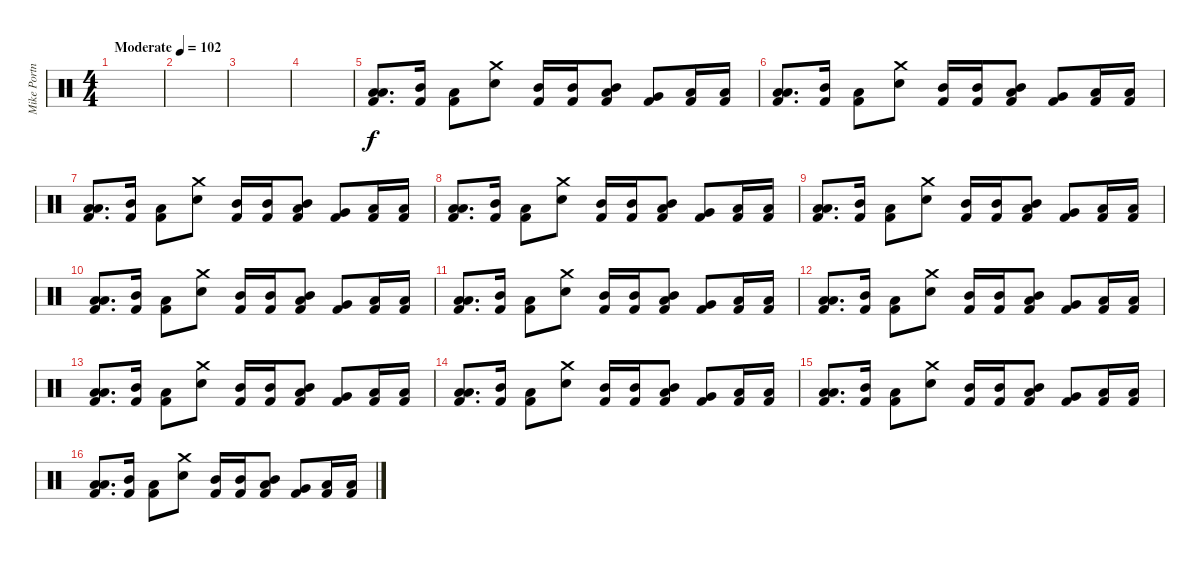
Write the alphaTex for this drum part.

\track ("Mike Portnoy Drum " "Mike Portn") {instrument percussion}
\staff {score}
\articulation defaults
\ts (4 4)
\tempo (102 "Moderate")
\clef neutral
\ks c
|
|
|
|
("Low Tom (hit)" "Low Floor Tom (hit)" "Kick (hit) 2").8{d volume 15} ("Mid Tom (hit)" "Kick (hit) 2").16 ("Low Floor Tom (hit)" "Kick (hit) 2").8 ("Crash medium (hit)" "Electric Snare (hit)").8 ("Mid Tom (hit)" "Kick (hit) 2").16 ("Mid Tom (hit)" "Kick (hit) 2").16 ("Mid Tom (hit)" "Low Tom (hit)" "Kick (hit) 2").8 ("Very Low Tom (hit)" "Kick (hit) 2").8 ("Low Floor Tom (hit)" "Kick (hit) 2").16 ("Low Floor Tom (hit)" "Kick (hit) 2").16 |
("Low Tom (hit)" "Low Floor Tom (hit)" "Kick (hit) 2").8{d} ("Mid Tom (hit)" "Kick (hit) 2").16 ("Low Floor Tom (hit)" "Kick (hit) 2").8 ("Crash medium (hit)" "Electric Snare (hit)").8 ("Mid Tom (hit)" "Kick (hit) 2").16 ("Mid Tom (hit)" "Kick (hit) 2").16 ("Mid Tom (hit)" "Low Tom (hit)" "Kick (hit) 2").8 ("Very Low Tom (hit)" "Kick (hit) 2").8 ("Low Floor Tom (hit)" "Kick (hit) 2").16 ("Low Floor Tom (hit)" "Kick (hit) 2").16 |
("Low Tom (hit)" "Low Floor Tom (hit)" "Kick (hit) 2").8{d} ("Mid Tom (hit)" "Kick (hit) 2").16 ("Low Floor Tom (hit)" "Kick (hit) 2").8 ("Crash medium (hit)" "Electric Snare (hit)").8 ("Mid Tom (hit)" "Kick (hit) 2").16 ("Mid Tom (hit)" "Kick (hit) 2").16 ("Mid Tom (hit)" "Low Tom (hit)" "Kick (hit) 2").8 ("Very Low Tom (hit)" "Kick (hit) 2").8 ("Low Floor Tom (hit)" "Kick (hit) 2").16 ("Low Floor Tom (hit)" "Kick (hit) 2").16 |
("Low Tom (hit)" "Low Floor Tom (hit)" "Kick (hit) 2").8{d} ("Mid Tom (hit)" "Kick (hit) 2").16 ("Low Floor Tom (hit)" "Kick (hit) 2").8 ("Crash medium (hit)" "Electric Snare (hit)").8 ("Mid Tom (hit)" "Kick (hit) 2").16 ("Mid Tom (hit)" "Kick (hit) 2").16 ("Mid Tom (hit)" "Low Tom (hit)" "Kick (hit) 2").8 ("Very Low Tom (hit)" "Kick (hit) 2").8 ("Low Floor Tom (hit)" "Kick (hit) 2").16 ("Low Floor Tom (hit)" "Kick (hit) 2").16 |
("Low Tom (hit)" "Low Floor Tom (hit)" "Kick (hit) 2").8{d} ("Mid Tom (hit)" "Kick (hit) 2").16 ("Low Floor Tom (hit)" "Kick (hit) 2").8 ("Crash medium (hit)" "Electric Snare (hit)").8 ("Mid Tom (hit)" "Kick (hit) 2").16 ("Mid Tom (hit)" "Kick (hit) 2").16 ("Mid Tom (hit)" "Low Tom (hit)" "Kick (hit) 2").8 ("Very Low Tom (hit)" "Kick (hit) 2").8 ("Low Floor Tom (hit)" "Kick (hit) 2").16 ("Low Floor Tom (hit)" "Kick (hit) 2").16 |
("Low Tom (hit)" "Low Floor Tom (hit)" "Kick (hit) 2").8{d} ("Mid Tom (hit)" "Kick (hit) 2").16 ("Low Floor Tom (hit)" "Kick (hit) 2").8 ("Crash medium (hit)" "Electric Snare (hit)").8 ("Mid Tom (hit)" "Kick (hit) 2").16 ("Mid Tom (hit)" "Kick (hit) 2").16 ("Mid Tom (hit)" "Low Tom (hit)" "Kick (hit) 2").8 ("Very Low Tom (hit)" "Kick (hit) 2").8 ("Low Floor Tom (hit)" "Kick (hit) 2").16 ("Low Floor Tom (hit)" "Kick (hit) 2").16 |
("Low Tom (hit)" "Low Floor Tom (hit)" "Kick (hit) 2").8{d} ("Mid Tom (hit)" "Kick (hit) 2").16 ("Low Floor Tom (hit)" "Kick (hit) 2").8 ("Crash medium (hit)" "Electric Snare (hit)").8 ("Mid Tom (hit)" "Kick (hit) 2").16 ("Mid Tom (hit)" "Kick (hit) 2").16 ("Mid Tom (hit)" "Low Tom (hit)" "Kick (hit) 2").8 ("Very Low Tom (hit)" "Kick (hit) 2").8 ("Low Floor Tom (hit)" "Kick (hit) 2").16 ("Low Floor Tom (hit)" "Kick (hit) 2").16 |
("Low Tom (hit)" "Low Floor Tom (hit)" "Kick (hit) 2").8{d} ("Mid Tom (hit)" "Kick (hit) 2").16 ("Low Floor Tom (hit)" "Kick (hit) 2").8 ("Crash medium (hit)" "Electric Snare (hit)").8 ("Mid Tom (hit)" "Kick (hit) 2").16 ("Mid Tom (hit)" "Kick (hit) 2").16 ("Mid Tom (hit)" "Low Tom (hit)" "Kick (hit) 2").8 ("Very Low Tom (hit)" "Kick (hit) 2").8 ("Low Floor Tom (hit)" "Kick (hit) 2").16 ("Low Floor Tom (hit)" "Kick (hit) 2").16 |
("Low Tom (hit)" "Low Floor Tom (hit)" "Kick (hit) 2").8{d} ("Mid Tom (hit)" "Kick (hit) 2").16 ("Low Floor Tom (hit)" "Kick (hit) 2").8 ("Crash medium (hit)" "Electric Snare (hit)").8 ("Mid Tom (hit)" "Kick (hit) 2").16 ("Mid Tom (hit)" "Kick (hit) 2").16 ("Mid Tom (hit)" "Low Tom (hit)" "Kick (hit) 2").8 ("Very Low Tom (hit)" "Kick (hit) 2").8 ("Low Floor Tom (hit)" "Kick (hit) 2").16 ("Low Floor Tom (hit)" "Kick (hit) 2").16 |
("Low Tom (hit)" "Low Floor Tom (hit)" "Kick (hit) 2").8{d} ("Mid Tom (hit)" "Kick (hit) 2").16 ("Low Floor Tom (hit)" "Kick (hit) 2").8 ("Crash medium (hit)" "Electric Snare (hit)").8 ("Mid Tom (hit)" "Kick (hit) 2").16 ("Mid Tom (hit)" "Kick (hit) 2").16 ("Mid Tom (hit)" "Low Tom (hit)" "Kick (hit) 2").8 ("Very Low Tom (hit)" "Kick (hit) 2").8 ("Low Floor Tom (hit)" "Kick (hit) 2").16 ("Low Floor Tom (hit)" "Kick (hit) 2").16 |
("Low Tom (hit)" "Low Floor Tom (hit)" "Kick (hit) 2").8{d} ("Mid Tom (hit)" "Kick (hit) 2").16 ("Low Floor Tom (hit)" "Kick (hit) 2").8 ("Crash medium (hit)" "Electric Snare (hit)").8 ("Mid Tom (hit)" "Kick (hit) 2").16 ("Mid Tom (hit)" "Kick (hit) 2").16 ("Mid Tom (hit)" "Low Tom (hit)" "Kick (hit) 2").8 ("Very Low Tom (hit)" "Kick (hit) 2").8 ("Low Floor Tom (hit)" "Kick (hit) 2").16 ("Low Floor Tom (hit)" "Kick (hit) 2").16 |
("Low Tom (hit)" "Low Floor Tom (hit)" "Kick (hit) 2").8{d} ("Mid Tom (hit)" "Kick (hit) 2").16 ("Low Floor Tom (hit)" "Kick (hit) 2").8 ("Crash medium (hit)" "Electric Snare (hit)").8 ("Mid Tom (hit)" "Kick (hit) 2").16 ("Mid Tom (hit)" "Kick (hit) 2").16 ("Mid Tom (hit)" "Low Tom (hit)" "Kick (hit) 2").8 ("Very Low Tom (hit)" "Kick (hit) 2").8 ("Low Floor Tom (hit)" "Kick (hit) 2").16 ("Low Floor Tom (hit)" "Kick (hit) 2").16
